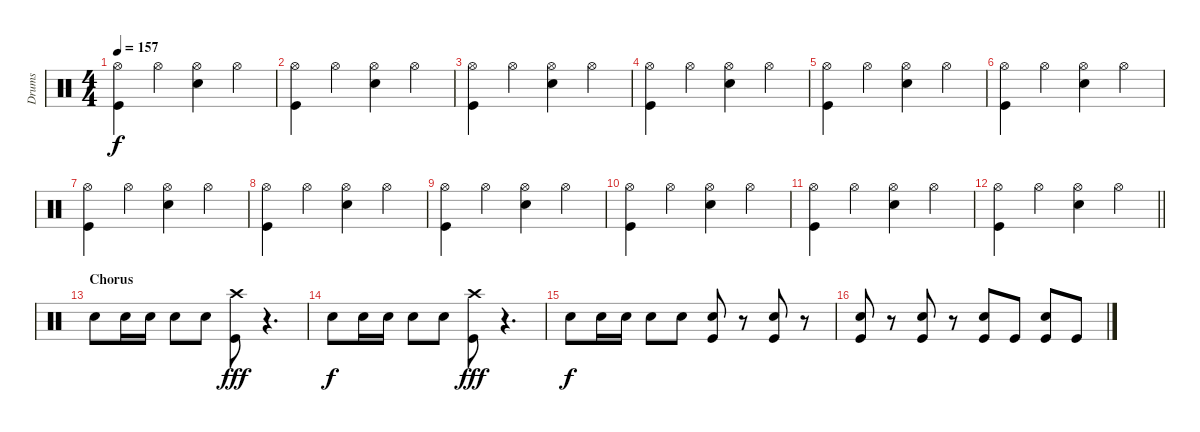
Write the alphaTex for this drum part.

\track ("Drums" "Drums") {instrument percussion}
\staff {score}
\articulation defaults
\ts (4 4)
\tempo 157
\clef neutral
\ks c
("Hi-Hat (open)" "Kick (hit)").4{dy f} "Hi-Hat (open)".4 ("Hi-Hat (open)" "Snare (hit) 2").4 "Hi-Hat (open)".4 |
("Hi-Hat (open)" "Kick (hit)").4 "Hi-Hat (open)".4 ("Hi-Hat (open)" "Snare (hit) 2").4 "Hi-Hat (open)".4 |
("Hi-Hat (open)" "Kick (hit)").4 "Hi-Hat (open)".4 ("Hi-Hat (open)" "Snare (hit) 2").4 "Hi-Hat (open)".4 |
("Hi-Hat (open)" "Kick (hit)").4 "Hi-Hat (open)".4 ("Hi-Hat (open)" "Snare (hit) 2").4 "Hi-Hat (open)".4 |
("Hi-Hat (open)" "Kick (hit)").4 "Hi-Hat (open)".4 ("Hi-Hat (open)" "Snare (hit) 2").4 "Hi-Hat (open)".4 |
("Hi-Hat (open)" "Kick (hit)").4 "Hi-Hat (open)".4 ("Hi-Hat (open)" "Snare (hit) 2").4 "Hi-Hat (open)".4 |
("Hi-Hat (open)" "Kick (hit)").4 "Hi-Hat (open)".4 ("Hi-Hat (open)" "Snare (hit) 2").4 "Hi-Hat (open)".4 |
("Hi-Hat (open)" "Kick (hit)").4 "Hi-Hat (open)".4 ("Hi-Hat (open)" "Snare (hit) 2").4 "Hi-Hat (open)".4 |
("Hi-Hat (open)" "Kick (hit)").4 "Hi-Hat (open)".4 ("Hi-Hat (open)" "Snare (hit) 2").4 "Hi-Hat (open)".4 |
("Hi-Hat (open)" "Kick (hit)").4 "Hi-Hat (open)".4 ("Hi-Hat (open)" "Snare (hit) 2").4 "Hi-Hat (open)".4 |
("Hi-Hat (open)" "Kick (hit)").4 "Hi-Hat (open)".4 ("Hi-Hat (open)" "Snare (hit) 2").4 "Hi-Hat (open)".4 |
\barLineRight lightlight
("Hi-Hat (open)" "Kick (hit)").4 "Hi-Hat (open)".4 ("Hi-Hat (open)" "Snare (hit) 2").4 "Hi-Hat (open)".4 |
\section ("" "Chorus")
"Snare (hit) 2".8 "Snare (hit) 2".16 "Snare (hit) 2".16 "Snare (hit) 2".8 "Snare (hit) 2".8 ("Crash high (hit)" "Kick (hit)").8{dy fff} r.4{d} |
"Snare (hit) 2".8{dy f} "Snare (hit) 2".16 "Snare (hit) 2".16 "Snare (hit) 2".8 "Snare (hit) 2".8 ("Crash high (hit)" "Kick (hit)").8{dy fff} r.4{d} |
"Snare (hit) 2".8{dy f} "Snare (hit) 2".16 "Snare (hit) 2".16 "Snare (hit) 2".8 "Snare (hit) 2".8 ("Kick (hit)" "Snare (hit) 2").8 r.8 ("Kick (hit)" "Snare (hit) 2").8 r.8 |
("Kick (hit)" "Snare (hit) 2").8 r.8 ("Kick (hit)" "Snare (hit) 2").8 r.8 ("Kick (hit)" "Snare (hit) 2").8 "Kick (hit)".8 ("Kick (hit)" "Snare (hit) 2").8 "Kick (hit)".8
